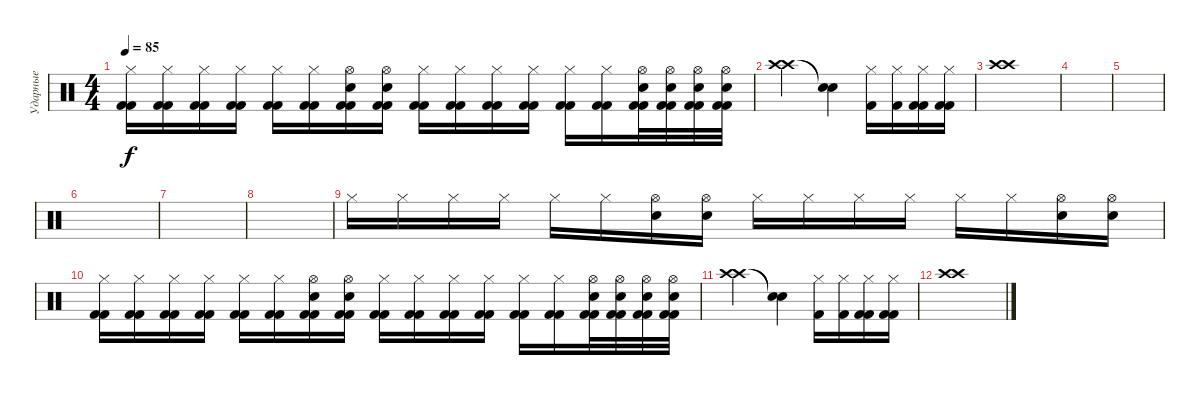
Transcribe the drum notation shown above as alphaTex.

\track ("Ударные" "Ударные") {instrument percussion}
\staff {score}
\articulation defaults
\ts (4 4)
\tempo 85
\clef neutral
\ks c
("Hi-Hat (closed)" "Kick (hit) 2" "Kick (hit) 2").16{dy f} ("Hi-Hat (closed)" "Kick (hit) 2" "Kick (hit) 2").16 ("Hi-Hat (closed)" "Kick (hit) 2" "Kick (hit) 2").16 ("Hi-Hat (closed)" "Kick (hit) 2" "Kick (hit) 2").16 ("Hi-Hat (closed)" "Kick (hit) 2" "Kick (hit) 2").16 ("Hi-Hat (closed)" "Kick (hit) 2" "Kick (hit) 2").16 ("Hi-Hat (open)" "Electric Snare (hit)" "Kick (hit) 2" "Kick (hit) 2").16 ("Hi-Hat (open)" "Electric Snare (hit)" "Kick (hit) 2" "Kick (hit) 2").16 ("Hi-Hat (closed)" "Kick (hit) 2" "Kick (hit) 2").16 ("Hi-Hat (closed)" "Kick (hit) 2" "Kick (hit) 2").16 ("Hi-Hat (closed)" "Kick (hit) 2" "Kick (hit) 2").16 ("Hi-Hat (closed)" "Kick (hit) 2" "Kick (hit) 2").16 ("Hi-Hat (closed)" "Kick (hit) 2" "Kick (hit) 2").16 ("Hi-Hat (closed)" "Kick (hit) 2" "Kick (hit) 2").16 ("Hi-Hat (open)" "Electric Snare (hit)" "Kick (hit) 2" "Kick (hit) 2").32 ("Hi-Hat (open)" "Electric Snare (hit)" "Kick (hit) 2" "Kick (hit) 2").32 ("Hi-Hat (open)" "Electric Snare (hit)" "Kick (hit) 2" "Kick (hit) 2").32 ("Hi-Hat (open)" "Electric Snare (hit)" "Kick (hit) 2" "Kick (hit) 2").32 |
("Crash high (hit)" "Crash high (hit)").2 ("Snare (hit)"{t} "Snare (hit)"{t}).4 ("Kick (hit) 2" "Hi-Hat (closed)").16 ("Kick (hit) 2" "Hi-Hat (closed)").16 ("Kick (hit) 2" "Kick (hit) 2" "Hi-Hat (closed)").16 ("Kick (hit) 2" "Kick (hit) 2" "Hi-Hat (closed)").16 |
("Crash high (hit)" "Crash high (hit)").1 |
|
|
|
|
|
"Hi-Hat (closed)".16 "Hi-Hat (closed)".16 "Hi-Hat (closed)".16 "Hi-Hat (closed)".16 "Hi-Hat (closed)".16 "Hi-Hat (closed)".16 ("Hi-Hat (open)" "Electric Snare (hit)").16 ("Hi-Hat (open)" "Electric Snare (hit)").16 "Hi-Hat (closed)".16 "Hi-Hat (closed)".16 "Hi-Hat (closed)".16 "Hi-Hat (closed)".16 "Hi-Hat (closed)".16 "Hi-Hat (closed)".16 ("Hi-Hat (open)" "Electric Snare (hit)").16 ("Hi-Hat (open)" "Electric Snare (hit)").16 |
("Hi-Hat (closed)" "Kick (hit) 2" "Kick (hit) 2").16 ("Hi-Hat (closed)" "Kick (hit) 2" "Kick (hit) 2").16 ("Hi-Hat (closed)" "Kick (hit) 2" "Kick (hit) 2").16 ("Hi-Hat (closed)" "Kick (hit) 2" "Kick (hit) 2").16 ("Hi-Hat (closed)" "Kick (hit) 2" "Kick (hit) 2").16 ("Hi-Hat (closed)" "Kick (hit) 2" "Kick (hit) 2").16 ("Hi-Hat (open)" "Electric Snare (hit)" "Kick (hit) 2" "Kick (hit) 2").16 ("Hi-Hat (open)" "Electric Snare (hit)" "Kick (hit) 2" "Kick (hit) 2").16 ("Hi-Hat (closed)" "Kick (hit) 2" "Kick (hit) 2").16 ("Hi-Hat (closed)" "Kick (hit) 2" "Kick (hit) 2").16 ("Hi-Hat (closed)" "Kick (hit) 2" "Kick (hit) 2").16 ("Hi-Hat (closed)" "Kick (hit) 2" "Kick (hit) 2").16 ("Hi-Hat (closed)" "Kick (hit) 2" "Kick (hit) 2").16 ("Hi-Hat (closed)" "Kick (hit) 2" "Kick (hit) 2").16 ("Hi-Hat (open)" "Electric Snare (hit)" "Kick (hit) 2" "Kick (hit) 2").32 ("Hi-Hat (open)" "Electric Snare (hit)" "Kick (hit) 2" "Kick (hit) 2").32 ("Hi-Hat (open)" "Electric Snare (hit)" "Kick (hit) 2" "Kick (hit) 2").32 ("Hi-Hat (open)" "Electric Snare (hit)" "Kick (hit) 2" "Kick (hit) 2").32 |
("Crash high (hit)" "Crash high (hit)").2 ("Snare (hit)"{t} "Snare (hit)"{t}).4 ("Kick (hit) 2" "Hi-Hat (closed)").16 ("Kick (hit) 2" "Hi-Hat (closed)").16 ("Kick (hit) 2" "Kick (hit) 2" "Hi-Hat (closed)").16 ("Kick (hit) 2" "Kick (hit) 2" "Hi-Hat (closed)").16 |
("Crash high (hit)" "Crash high (hit)").1
